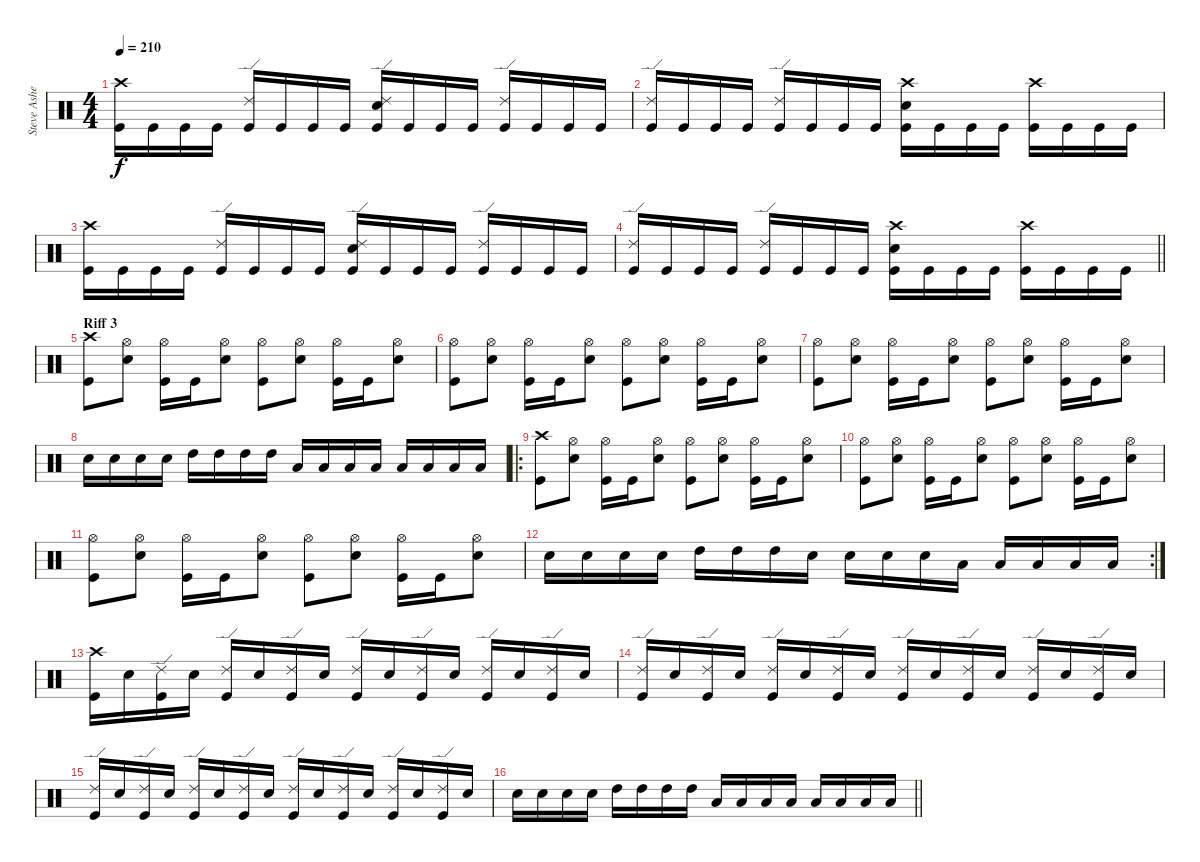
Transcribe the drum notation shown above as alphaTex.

\track ("Steve Asheim" "Steve Ashe") {instrument percussion}
\staff {score}
\articulation defaults
\ts (4 4)
\tempo 210
\clef neutral
\ks c
("Crash high (hit)" "Kick (hit)").16{dy f} "Kick (hit)".16 "Kick (hit)".16 "Kick (hit)".16 ("Ride (edge) 2" "Kick (hit)").16 "Kick (hit)".16 "Kick (hit)".16 "Kick (hit)".16 ("Ride (edge) 2" "Snare (hit) 2" "Kick (hit)").16 "Kick (hit)".16 "Kick (hit)".16 "Kick (hit)".16 ("Ride (edge) 2" "Kick (hit)").16 "Kick (hit)".16 "Kick (hit)".16 "Kick (hit)".16 |
("Ride (edge) 2" "Kick (hit)").16 "Kick (hit)".16 "Kick (hit)".16 "Kick (hit)".16 ("Ride (edge) 2" "Kick (hit)").16 "Kick (hit)".16 "Kick (hit)".16 "Kick (hit)".16 ("Crash high (hit)" "Snare (hit) 2" "Kick (hit)").16 "Kick (hit)".16 "Kick (hit)".16 "Kick (hit)".16 ("Crash high (hit)" "Kick (hit)").16 "Kick (hit)".16 "Kick (hit)".16 "Kick (hit)".16 |
("Crash high (hit)" "Kick (hit)").16 "Kick (hit)".16 "Kick (hit)".16 "Kick (hit)".16 ("Ride (edge) 2" "Kick (hit)").16 "Kick (hit)".16 "Kick (hit)".16 "Kick (hit)".16 ("Ride (edge) 2" "Snare (hit) 2" "Kick (hit)").16 "Kick (hit)".16 "Kick (hit)".16 "Kick (hit)".16 ("Ride (edge) 2" "Kick (hit)").16 "Kick (hit)".16 "Kick (hit)".16 "Kick (hit)".16 |
\barLineRight lightlight
("Ride (edge) 2" "Kick (hit)").16 "Kick (hit)".16 "Kick (hit)".16 "Kick (hit)".16 ("Ride (edge) 2" "Kick (hit)").16 "Kick (hit)".16 "Kick (hit)".16 "Kick (hit)".16 ("Crash high (hit)" "Snare (hit) 2" "Kick (hit)").16 "Kick (hit)".16 "Kick (hit)".16 "Kick (hit)".16 ("Crash high (hit)" "Kick (hit)").16 "Kick (hit)".16 "Kick (hit)".16 "Kick (hit)".16 |
\section ("" "Riff 3")
("Crash high (hit)" "Kick (hit)").8 ("Hi-Hat (open)" "Snare (hit) 2").8 ("Hi-Hat (open)" "Kick (hit)").16 "Kick (hit)".16 ("Hi-Hat (open)" "Snare (hit) 2").8 ("Hi-Hat (open)" "Kick (hit)").8 ("Hi-Hat (open)" "Snare (hit) 2").8 ("Hi-Hat (open)" "Kick (hit)").16 "Kick (hit)".16 ("Hi-Hat (open)" "Snare (hit) 2").8 |
("Hi-Hat (open)" "Kick (hit)").8 ("Hi-Hat (open)" "Snare (hit) 2").8 ("Hi-Hat (open)" "Kick (hit)").16 "Kick (hit)".16 ("Hi-Hat (open)" "Snare (hit) 2").8 ("Hi-Hat (open)" "Kick (hit)").8 ("Hi-Hat (open)" "Snare (hit) 2").8 ("Hi-Hat (open)" "Kick (hit)").16 "Kick (hit)".16 ("Hi-Hat (open)" "Snare (hit) 2").8 |
("Hi-Hat (open)" "Kick (hit)").8 ("Hi-Hat (open)" "Snare (hit) 2").8 ("Hi-Hat (open)" "Kick (hit)").16 "Kick (hit)".16 ("Hi-Hat (open)" "Snare (hit) 2").8 ("Hi-Hat (open)" "Kick (hit)").8 ("Hi-Hat (open)" "Snare (hit) 2").8 ("Hi-Hat (open)" "Kick (hit)").16 "Kick (hit)".16 ("Hi-Hat (open)" "Snare (hit) 2").8 |
"Snare (hit) 2".16 "Snare (hit) 2".16 "Snare (hit) 2".16 "Snare (hit) 2".16 "High Tom (hit)".16 "High Tom (hit)".16 "High Tom (hit)".16 "High Tom (hit)".16 "Low Tom (hit)".16 "Low Tom (hit)".16 "Low Tom (hit)".16 "Low Tom (hit)".16 "Low Floor Tom (hit)".16 "Low Floor Tom (hit)".16 "Low Floor Tom (hit)".16 "Low Floor Tom (hit)".16 |
\ro
("Crash high (hit)" "Kick (hit)").8 ("Hi-Hat (open)" "Snare (hit) 2").8 ("Hi-Hat (open)" "Kick (hit)").16 "Kick (hit)".16 ("Hi-Hat (open)" "Snare (hit) 2").8 ("Hi-Hat (open)" "Kick (hit)").8 ("Hi-Hat (open)" "Snare (hit) 2").8 ("Hi-Hat (open)" "Kick (hit)").16 "Kick (hit)".16 ("Hi-Hat (open)" "Snare (hit) 2").8 |
("Hi-Hat (open)" "Kick (hit)").8 ("Hi-Hat (open)" "Snare (hit) 2").8 ("Hi-Hat (open)" "Kick (hit)").16 "Kick (hit)".16 ("Hi-Hat (open)" "Snare (hit) 2").8 ("Hi-Hat (open)" "Kick (hit)").8 ("Hi-Hat (open)" "Snare (hit) 2").8 ("Hi-Hat (open)" "Kick (hit)").16 "Kick (hit)".16 ("Hi-Hat (open)" "Snare (hit) 2").8 |
("Hi-Hat (open)" "Kick (hit)").8 ("Hi-Hat (open)" "Snare (hit) 2").8 ("Hi-Hat (open)" "Kick (hit)").16 "Kick (hit)".16 ("Hi-Hat (open)" "Snare (hit) 2").8 ("Hi-Hat (open)" "Kick (hit)").8 ("Hi-Hat (open)" "Snare (hit) 2").8 ("Hi-Hat (open)" "Kick (hit)").16 "Kick (hit)".16 ("Hi-Hat (open)" "Snare (hit) 2").8 |
\rc 2 "Snare (hit) 2".16 "Snare (hit) 2".16 "Snare (hit) 2".16 "Snare (hit) 2".16 "High Tom (hit)".16 "High Tom (hit)".16 "High Tom (hit)".16 "Snare (hit) 2".16 "Snare (hit) 2".16 "Snare (hit) 2".16 "Snare (hit) 2".16 "Low Tom (hit)".16 "Low Tom (hit)".16 "Low Tom (hit)".16 "Low Floor Tom (hit)".16 "Low Floor Tom (hit)".16
|
("Crash high (hit)" "Kick (hit)").16 "Snare (hit) 2".16 ("Ride (edge) 2" "Kick (hit)").16 "Snare (hit) 2".16 ("Ride (edge) 2" "Kick (hit)").16 "Snare (hit) 2".16 ("Ride (edge) 2" "Kick (hit)").16 "Snare (hit) 2".16 ("Ride (edge) 2" "Kick (hit)").16 "Snare (hit) 2".16 ("Ride (edge) 2" "Kick (hit)").16 "Snare (hit) 2".16 ("Ride (edge) 2" "Kick (hit)").16 "Snare (hit) 2".16 ("Ride (edge) 2" "Kick (hit)").16 "Snare (hit) 2".16 |
("Ride (edge) 2" "Kick (hit)").16 "Snare (hit) 2".16 ("Ride (edge) 2" "Kick (hit)").16 "Snare (hit) 2".16 ("Ride (edge) 2" "Kick (hit)").16 "Snare (hit) 2".16 ("Ride (edge) 2" "Kick (hit)").16 "Snare (hit) 2".16 ("Ride (edge) 2" "Kick (hit)").16 "Snare (hit) 2".16 ("Ride (edge) 2" "Kick (hit)").16 "Snare (hit) 2".16 ("Ride (edge) 2" "Kick (hit)").16 "Snare (hit) 2".16 ("Ride (edge) 2" "Kick (hit)").16 "Snare (hit) 2".16 |
("Ride (edge) 2" "Kick (hit)").16 "Snare (hit) 2".16 ("Ride (edge) 2" "Kick (hit)").16 "Snare (hit) 2".16 ("Ride (edge) 2" "Kick (hit)").16 "Snare (hit) 2".16 ("Ride (edge) 2" "Kick (hit)").16 "Snare (hit) 2".16 ("Ride (edge) 2" "Kick (hit)").16 "Snare (hit) 2".16 ("Ride (edge) 2" "Kick (hit)").16 "Snare (hit) 2".16 ("Ride (edge) 2" "Kick (hit)").16 "Snare (hit) 2".16 ("Ride (edge) 2" "Kick (hit)").16 "Snare (hit) 2".16 |
\barLineRight lightlight "Snare (hit) 2".16 "Snare (hit) 2".16 "Snare (hit) 2".16 "Snare (hit) 2".16 "High Tom (hit)".16 "High Tom (hit)".16 "High Tom (hit)".16 "High Tom (hit)".16 "Low Tom (hit)".16 "Low Tom (hit)".16 "Low Tom (hit)".16 "Low Tom (hit)".16 "Low Floor Tom (hit)".16 "Low Floor Tom (hit)".16 "Low Floor Tom (hit)".16 "Low Floor Tom (hit)".16
